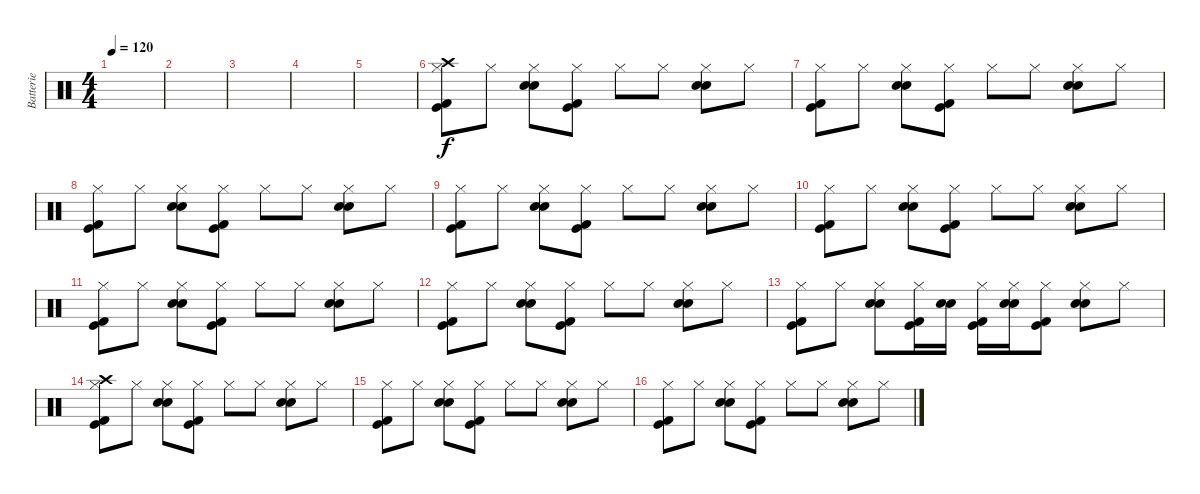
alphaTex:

\track ("Batterie" "Batterie") {instrument percussion}
\staff {score}
\articulation defaults
\ts (4 4)
\tempo 120
\clef neutral
\ks c
|
|
|
|
|
("Crash high (hit)" "Hi-Hat (closed)" "Kick (hit)" "Kick (hit) 2").8 "Hi-Hat (closed)".8 ("Hi-Hat (closed)" "Electric Snare (hit)" "Electric Snare (hit)").8 ("Hi-Hat (closed)" "Kick (hit)" "Kick (hit) 2").8 "Hi-Hat (closed)".8 "Hi-Hat (closed)".8 ("Hi-Hat (closed)" "Electric Snare (hit)" "Electric Snare (hit)").8 "Hi-Hat (closed)".8 |
("Hi-Hat (closed)" "Kick (hit)" "Kick (hit) 2").8 "Hi-Hat (closed)".8 ("Hi-Hat (closed)" "Electric Snare (hit)" "Electric Snare (hit)").8 ("Hi-Hat (closed)" "Kick (hit)" "Kick (hit) 2").8 "Hi-Hat (closed)".8 "Hi-Hat (closed)".8 ("Hi-Hat (closed)" "Electric Snare (hit)" "Electric Snare (hit)").8 "Hi-Hat (closed)".8 |
("Hi-Hat (closed)" "Kick (hit)" "Kick (hit) 2").8 "Hi-Hat (closed)".8 ("Hi-Hat (closed)" "Electric Snare (hit)" "Electric Snare (hit)").8 ("Hi-Hat (closed)" "Kick (hit)" "Kick (hit) 2").8 "Hi-Hat (closed)".8 "Hi-Hat (closed)".8 ("Hi-Hat (closed)" "Electric Snare (hit)" "Electric Snare (hit)").8 "Hi-Hat (closed)".8 |
("Hi-Hat (closed)" "Kick (hit)" "Kick (hit) 2").8 "Hi-Hat (closed)".8 ("Hi-Hat (closed)" "Electric Snare (hit)" "Electric Snare (hit)").8 ("Hi-Hat (closed)" "Kick (hit)" "Kick (hit) 2").8 "Hi-Hat (closed)".8 "Hi-Hat (closed)".8 ("Hi-Hat (closed)" "Electric Snare (hit)" "Electric Snare (hit)").8 "Hi-Hat (closed)".8 |
("Hi-Hat (closed)" "Kick (hit)" "Kick (hit) 2").8 "Hi-Hat (closed)".8 ("Hi-Hat (closed)" "Electric Snare (hit)" "Electric Snare (hit)").8 ("Hi-Hat (closed)" "Kick (hit)" "Kick (hit) 2").8 "Hi-Hat (closed)".8 "Hi-Hat (closed)".8 ("Hi-Hat (closed)" "Electric Snare (hit)" "Electric Snare (hit)").8 "Hi-Hat (closed)".8 |
("Hi-Hat (closed)" "Kick (hit)" "Kick (hit) 2").8 "Hi-Hat (closed)".8 ("Hi-Hat (closed)" "Electric Snare (hit)" "Electric Snare (hit)").8 ("Hi-Hat (closed)" "Kick (hit)" "Kick (hit) 2").8 "Hi-Hat (closed)".8 "Hi-Hat (closed)".8 ("Hi-Hat (closed)" "Electric Snare (hit)" "Electric Snare (hit)").8 "Hi-Hat (closed)".8 |
("Hi-Hat (closed)" "Kick (hit)" "Kick (hit) 2").8 "Hi-Hat (closed)".8 ("Hi-Hat (closed)" "Electric Snare (hit)" "Electric Snare (hit)").8 ("Hi-Hat (closed)" "Kick (hit)" "Kick (hit) 2").8 "Hi-Hat (closed)".8 "Hi-Hat (closed)".8 ("Hi-Hat (closed)" "Electric Snare (hit)" "Electric Snare (hit)").8 "Hi-Hat (closed)".8 |
("Hi-Hat (closed)" "Kick (hit)" "Kick (hit) 2").8 "Hi-Hat (closed)".8 ("Hi-Hat (closed)" "Electric Snare (hit)" "Electric Snare (hit)").8 ("Hi-Hat (closed)" "Kick (hit)" "Kick (hit) 2").16 ("Electric Snare (hit)" "Electric Snare (hit)").16 ("Hi-Hat (closed)" "Kick (hit)" "Kick (hit) 2").16 ("Hi-Hat (closed)" "Electric Snare (hit)" "Electric Snare (hit)").16 ("Hi-Hat (closed)" "Kick (hit)" "Kick (hit) 2").8 ("Hi-Hat (closed)" "Electric Snare (hit)" "Electric Snare (hit)").8 "Hi-Hat (closed)".8 |
("Crash high (hit)" "Hi-Hat (closed)" "Kick (hit)" "Kick (hit) 2").8 "Hi-Hat (closed)".8 ("Hi-Hat (closed)" "Electric Snare (hit)" "Electric Snare (hit)").8 ("Hi-Hat (closed)" "Kick (hit)" "Kick (hit) 2").8 "Hi-Hat (closed)".8 "Hi-Hat (closed)".8 ("Hi-Hat (closed)" "Electric Snare (hit)" "Electric Snare (hit)").8 "Hi-Hat (closed)".8 |
("Hi-Hat (closed)" "Kick (hit)" "Kick (hit) 2").8 "Hi-Hat (closed)".8 ("Hi-Hat (closed)" "Electric Snare (hit)" "Electric Snare (hit)").8 ("Hi-Hat (closed)" "Kick (hit)" "Kick (hit) 2").8 "Hi-Hat (closed)".8 "Hi-Hat (closed)".8 ("Hi-Hat (closed)" "Electric Snare (hit)" "Electric Snare (hit)").8 "Hi-Hat (closed)".8 |
("Hi-Hat (closed)" "Kick (hit)" "Kick (hit) 2").8 "Hi-Hat (closed)".8 ("Hi-Hat (closed)" "Electric Snare (hit)" "Electric Snare (hit)").8 ("Hi-Hat (closed)" "Kick (hit)" "Kick (hit) 2").8 "Hi-Hat (closed)".8 "Hi-Hat (closed)".8 ("Hi-Hat (closed)" "Electric Snare (hit)" "Electric Snare (hit)").8 "Hi-Hat (closed)".8
